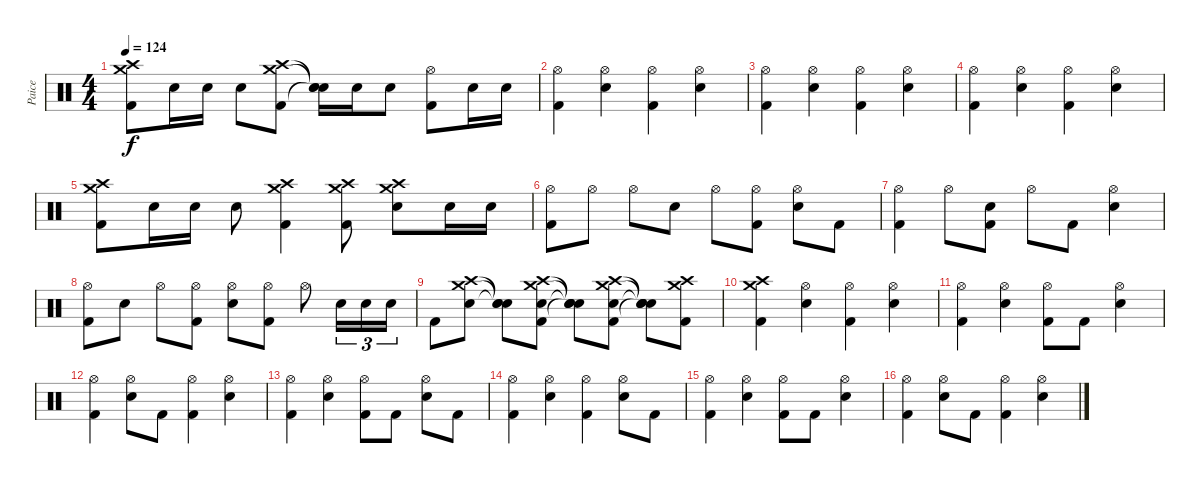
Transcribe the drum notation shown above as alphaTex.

\track ("Paice" "Paice") {instrument percussion}
\staff {score}
\articulation defaults
\ts (4 4)
\tempo 124
\clef neutral
\ks c
("Crash high (hit)" "Crash medium (hit)" "Kick (hit) 2").8{dy f} "Electric Snare (hit)".16 "Electric Snare (hit)".16 "Electric Snare (hit)".8 ("Crash high (hit)" "Crash medium (hit)" "Kick (hit) 2").8 ("Snare (hit)"{t} "Snare (hit)"{t} "Snare (hit)"{t}).16 "Electric Snare (hit)".16 "Electric Snare (hit)".8 ("Hi-Hat (open)" "Kick (hit) 2").8 "Electric Snare (hit)".16 "Electric Snare (hit)".16 |
("Hi-Hat (open)" "Kick (hit) 2").4 ("Hi-Hat (open)" "Electric Snare (hit)").4 ("Hi-Hat (open)" "Kick (hit) 2").4 ("Hi-Hat (open)" "Electric Snare (hit)").4 |
("Hi-Hat (open)" "Kick (hit) 2").4 ("Hi-Hat (open)" "Electric Snare (hit)").4 ("Hi-Hat (open)" "Kick (hit) 2").4 ("Hi-Hat (open)" "Electric Snare (hit)").4 |
("Hi-Hat (open)" "Kick (hit) 2").4 ("Hi-Hat (open)" "Electric Snare (hit)").4 ("Hi-Hat (open)" "Kick (hit) 2").4 ("Hi-Hat (open)" "Electric Snare (hit)").4 |
("Crash high (hit)" "Crash medium (hit)" "Kick (hit) 2").8 "Electric Snare (hit)".16 "Electric Snare (hit)".16 "Electric Snare (hit)".8 ("Crash high (hit)" "Crash medium (hit)" "Kick (hit) 2").4 ("Crash high (hit)" "Crash medium (hit)" "Kick (hit) 2").8 ("Crash high (hit)" "Crash medium (hit)" "Electric Snare (hit)").8 "Electric Snare (hit)".16 "Electric Snare (hit)".16 |
("Hi-Hat (open)" "Kick (hit) 2").8 "Hi-Hat (open)".8 "Hi-Hat (open)".8 "Electric Snare (hit)".8 "Hi-Hat (open)".8 ("Hi-Hat (open)" "Kick (hit) 2").8 ("Hi-Hat (open)" "Electric Snare (hit)").8 "Kick (hit) 2".8 |
("Hi-Hat (open)" "Kick (hit) 2").4 "Hi-Hat (open)".8 ("Electric Snare (hit)" "Kick (hit) 2").8 "Hi-Hat (open)".8 "Kick (hit) 2".8 ("Hi-Hat (open)" "Electric Snare (hit)").4 |
("Hi-Hat (open)" "Kick (hit) 2").8 "Electric Snare (hit)".8 "Hi-Hat (open)".8 ("Hi-Hat (open)" "Kick (hit) 2").8 ("Hi-Hat (open)" "Electric Snare (hit)").8 ("Hi-Hat (open)" "Kick (hit) 2").8 "Hi-Hat (open)".8 "Electric Snare (hit)".16{tu (3 2)} "Electric Snare (hit)".16{tu (3 2)} "Electric Snare (hit)".16{tu (3 2)} |
"Kick (hit) 2".8 ("Crash high (hit)" "Crash medium (hit)" "Electric Snare (hit)").8 ("Snare (hit)"{t} "Snare (hit)"{t} "Snare (hit)"{t}).8 ("Crash high (hit)" "Crash medium (hit)" "Electric Snare (hit)" "Kick (hit) 2").8 ("Snare (hit)"{t} "Snare (hit)"{t} "Snare (hit)"{t} "Snare (hit)"{t}).8 ("Crash high (hit)" "Crash medium (hit)" "Electric Snare (hit)" "Kick (hit) 2").8 ("Snare (hit)"{t} "Snare (hit)"{t} "Snare (hit)"{t} "Snare (hit)"{t}).8 ("Crash high (hit)" "Crash medium (hit)" "Kick (hit) 2").8 |
("Crash high (hit)" "Crash medium (hit)" "Kick (hit) 2").4 ("Hi-Hat (open)" "Electric Snare (hit)").4 ("Hi-Hat (open)" "Kick (hit) 2").4 ("Hi-Hat (open)" "Electric Snare (hit)").4 |
("Hi-Hat (open)" "Kick (hit) 2").4 ("Hi-Hat (open)" "Electric Snare (hit)").4 ("Hi-Hat (open)" "Kick (hit) 2").8 "Kick (hit) 2".8 ("Hi-Hat (open)" "Electric Snare (hit)").4 |
("Hi-Hat (open)" "Kick (hit) 2").4 ("Hi-Hat (open)" "Electric Snare (hit)").8 "Kick (hit) 2".8 ("Hi-Hat (open)" "Kick (hit) 2").4 ("Hi-Hat (open)" "Electric Snare (hit)").4 |
("Hi-Hat (open)" "Kick (hit) 2").4 ("Hi-Hat (open)" "Electric Snare (hit)").4 ("Hi-Hat (open)" "Kick (hit) 2").8 "Kick (hit) 2".8 ("Hi-Hat (open)" "Electric Snare (hit)").8 "Kick (hit) 2".8 |
("Hi-Hat (open)" "Kick (hit) 2").4 ("Hi-Hat (open)" "Electric Snare (hit)").4 ("Hi-Hat (open)" "Kick (hit) 2").4 ("Hi-Hat (open)" "Electric Snare (hit)").8 "Kick (hit) 2".8 |
("Hi-Hat (open)" "Kick (hit) 2").4 ("Hi-Hat (open)" "Electric Snare (hit)").4 ("Hi-Hat (open)" "Kick (hit) 2").8 "Kick (hit) 2".8 ("Hi-Hat (open)" "Electric Snare (hit)").4 |
("Hi-Hat (open)" "Kick (hit) 2").4 ("Hi-Hat (open)" "Electric Snare (hit)").8 "Kick (hit) 2".8 ("Hi-Hat (open)" "Kick (hit) 2").4 ("Hi-Hat (open)" "Electric Snare (hit)").4
